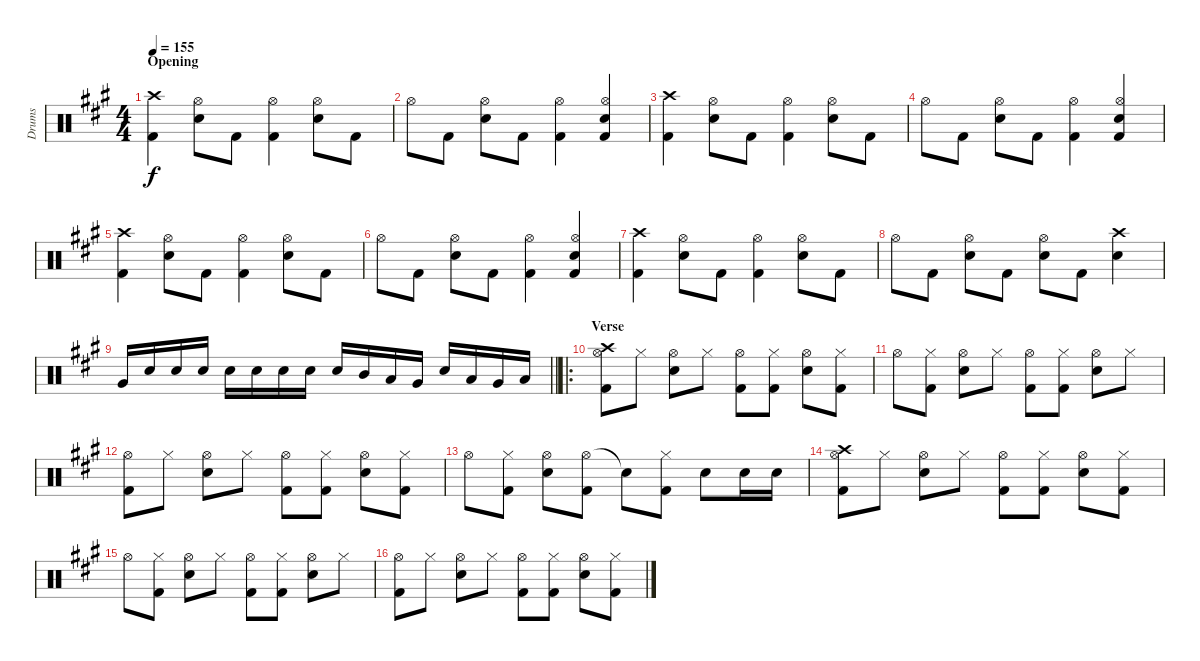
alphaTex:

\track ("Drums" "Drums") {instrument percussion}
\staff {score}
\articulation defaults
\ts (4 4)
\section ("" "Opening")
\tempo 155
\clef neutral
\ks a
("Crash high (hit)" "Kick (hit) 2").4{dy f} ("Hi-Hat (open)" "Snare (hit) 2").8 "Kick (hit) 2".8 ("Hi-Hat (open)" "Kick (hit) 2").4 ("Hi-Hat (open)" "Snare (hit) 2").8 "Kick (hit) 2".8 |
"Hi-Hat (open)".8 "Kick (hit) 2".8 ("Hi-Hat (open)" "Snare (hit) 2").8 "Kick (hit) 2".8 ("Hi-Hat (open)" "Kick (hit) 2").4 ("Hi-Hat (open)" "Snare (hit) 2" "Kick (hit) 2").4 |
("Crash high (hit)" "Kick (hit) 2").4 ("Hi-Hat (open)" "Snare (hit) 2").8 "Kick (hit) 2".8 ("Hi-Hat (open)" "Kick (hit) 2").4 ("Hi-Hat (open)" "Snare (hit) 2").8 "Kick (hit) 2".8 |
"Hi-Hat (open)".8 "Kick (hit) 2".8 ("Hi-Hat (open)" "Snare (hit) 2").8 "Kick (hit) 2".8 ("Hi-Hat (open)" "Kick (hit) 2").4 ("Hi-Hat (open)" "Snare (hit) 2" "Kick (hit) 2").4 |
("Crash high (hit)" "Kick (hit) 2").4 ("Hi-Hat (open)" "Snare (hit) 2").8 "Kick (hit) 2".8 ("Hi-Hat (open)" "Kick (hit) 2").4 ("Hi-Hat (open)" "Snare (hit) 2").8 "Kick (hit) 2".8 |
"Hi-Hat (open)".8 "Kick (hit) 2".8 ("Hi-Hat (open)" "Snare (hit) 2").8 "Kick (hit) 2".8 ("Hi-Hat (open)" "Kick (hit) 2").4 ("Hi-Hat (open)" "Snare (hit) 2" "Kick (hit) 2").4 |
("Crash high (hit)" "Kick (hit) 2").4 ("Hi-Hat (open)" "Snare (hit) 2").8 "Kick (hit) 2".8 ("Hi-Hat (open)" "Kick (hit) 2").4 ("Hi-Hat (open)" "Snare (hit) 2").8 "Kick (hit) 2".8 |
"Hi-Hat (open)".8 "Kick (hit) 2".8 ("Hi-Hat (open)" "Snare (hit) 2").8 "Kick (hit) 2".8 ("Hi-Hat (open)" "Snare (hit) 2").8 "Kick (hit) 2".8 ("Crash high (hit)" "Snare (hit) 2").4 |
\barLineRight lightlight "Very Low Tom (hit)".16 "Snare (hit) 2".16 "Snare (hit) 2".16 "Snare (hit) 2".16 "Snare (hit) 2".16 "Snare (hit) 2".16 "Snare (hit) 2".16 "Snare (hit) 2".16 "Snare (hit) 2".16 "Mid Tom (hit)".16 "Low Tom (hit)".16 "Very Low Tom (hit)".16 "Snare (hit) 2".16 "Low Tom (hit)".16 "Very Low Tom (hit)".16 "Low Floor Tom (hit)".16
|
\ro
\section ("" "Verse")
("Hi-Hat (open)" "Crash high (hit)" "Kick (hit) 2").8 "Hi-Hat (closed)".8 ("Hi-Hat (open)" "Snare (hit) 2").8 "Hi-Hat (closed)".8 ("Hi-Hat (open)" "Kick (hit) 2").8 ("Hi-Hat (closed)" "Kick (hit) 2").8 ("Hi-Hat (open)" "Snare (hit) 2").8 ("Hi-Hat (closed)" "Kick (hit) 2").8 |
"Hi-Hat (open)".8 ("Hi-Hat (closed)" "Kick (hit) 2").8 ("Hi-Hat (open)" "Snare (hit) 2").8 "Hi-Hat (closed)".8 ("Hi-Hat (open)" "Kick (hit) 2").8 ("Hi-Hat (closed)" "Kick (hit) 2").8 ("Hi-Hat (open)" "Snare (hit) 2").8 "Hi-Hat (closed)".8 |
("Hi-Hat (open)" "Kick (hit) 2").8 "Hi-Hat (closed)".8 ("Hi-Hat (open)" "Snare (hit) 2").8 "Hi-Hat (closed)".8 ("Hi-Hat (open)" "Kick (hit) 2").8 ("Hi-Hat (closed)" "Kick (hit) 2").8 ("Hi-Hat (open)" "Snare (hit) 2").8 ("Hi-Hat (closed)" "Kick (hit) 2").8 |
"Hi-Hat (open)".8 ("Hi-Hat (closed)" "Kick (hit) 2").8 ("Hi-Hat (open)" "Snare (hit) 2").8 ("Hi-Hat (open)" "Kick (hit) 2").8 "Snare (hit)"{t}.8 ("Hi-Hat (closed)" "Kick (hit) 2").8 "Snare (hit) 2".8 "Snare (hit) 2".16 "Snare (hit) 2".16 |
("Hi-Hat (open)" "Crash high (hit)" "Kick (hit) 2").8 "Hi-Hat (closed)".8 ("Hi-Hat (open)" "Snare (hit) 2").8 "Hi-Hat (closed)".8 ("Hi-Hat (open)" "Kick (hit) 2").8 ("Hi-Hat (closed)" "Kick (hit) 2").8 ("Hi-Hat (open)" "Snare (hit) 2").8 ("Hi-Hat (closed)" "Kick (hit) 2").8 |
"Hi-Hat (open)".8 ("Hi-Hat (closed)" "Kick (hit) 2").8 ("Hi-Hat (open)" "Snare (hit) 2").8 "Hi-Hat (closed)".8 ("Hi-Hat (open)" "Kick (hit) 2").8 ("Hi-Hat (closed)" "Kick (hit) 2").8 ("Hi-Hat (open)" "Snare (hit) 2").8 "Hi-Hat (closed)".8 |
("Hi-Hat (open)" "Kick (hit) 2").8 "Hi-Hat (closed)".8 ("Hi-Hat (open)" "Snare (hit) 2").8 "Hi-Hat (closed)".8 ("Hi-Hat (open)" "Kick (hit) 2").8 ("Hi-Hat (closed)" "Kick (hit) 2").8 ("Hi-Hat (open)" "Snare (hit) 2").8 ("Hi-Hat (closed)" "Kick (hit) 2").8
